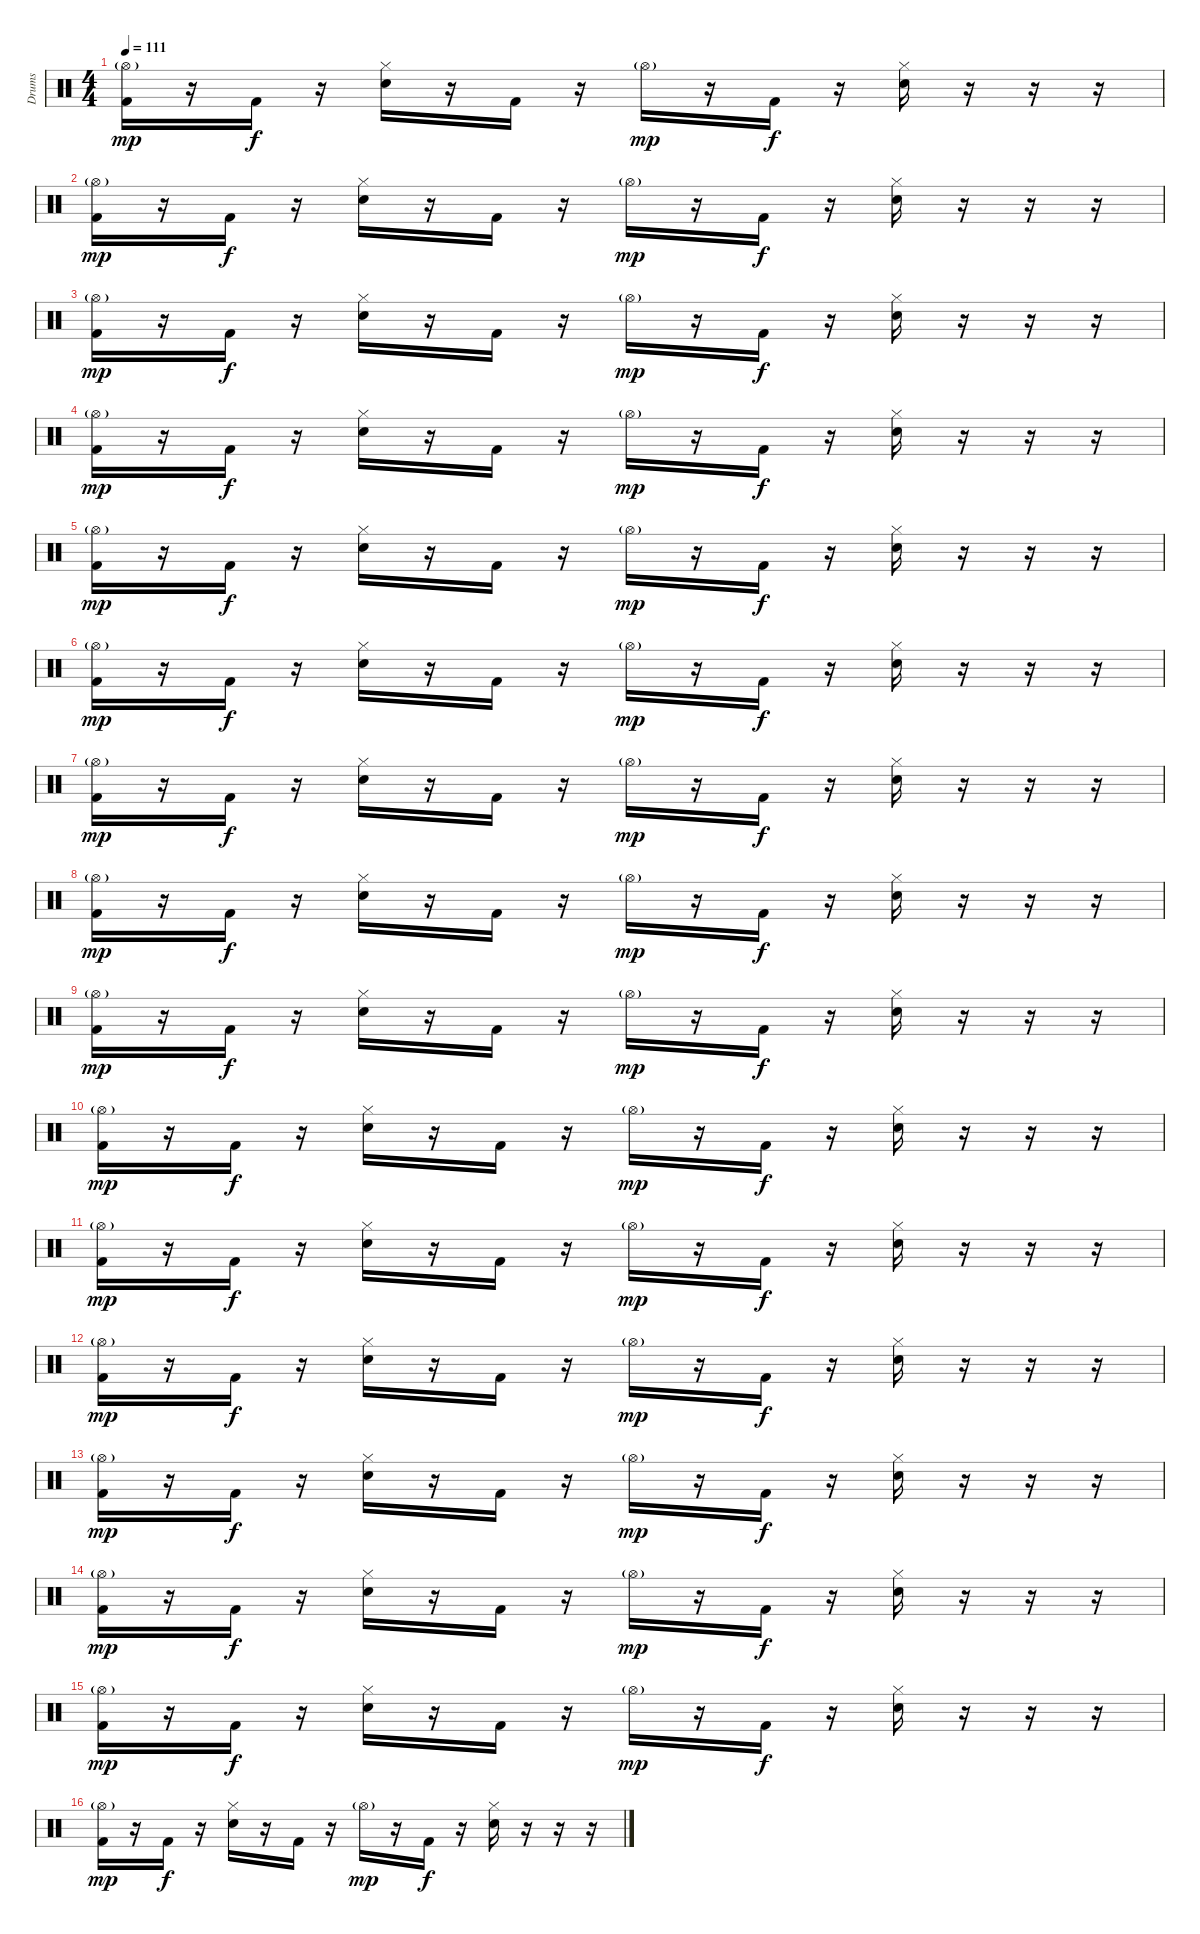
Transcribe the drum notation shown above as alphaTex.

\track ("Drums" "Drums") {instrument percussion}
\staff {score}
\articulation defaults
\ts (4 4)
\tempo 111
\clef neutral
\ks c
("Hi-Hat (open)"{g} "Kick (hit) 2").16{dy mp} r.16 "Kick (hit) 2".16{dy f} r.16 ("Hi-Hat (closed)" "Snare (hit) 2").16 r.16 "Kick (hit) 2".16 r.16 "Hi-Hat (open)"{g}.16{dy mp} r.16 "Kick (hit) 2".16{dy f} r.16 ("Hi-Hat (closed)" "Snare (hit) 2").16 r.16 r.16 r.16 |
("Hi-Hat (open)"{g} "Kick (hit) 2").16{dy mp} r.16 "Kick (hit) 2".16{dy f} r.16 ("Hi-Hat (closed)" "Snare (hit) 2").16 r.16 "Kick (hit) 2".16 r.16 "Hi-Hat (open)"{g}.16{dy mp} r.16 "Kick (hit) 2".16{dy f} r.16 ("Hi-Hat (closed)" "Snare (hit) 2").16 r.16 r.16 r.16 |
("Hi-Hat (open)"{g} "Kick (hit) 2").16{dy mp} r.16 "Kick (hit) 2".16{dy f} r.16 ("Hi-Hat (closed)" "Snare (hit) 2").16 r.16 "Kick (hit) 2".16 r.16 "Hi-Hat (open)"{g}.16{dy mp} r.16 "Kick (hit) 2".16{dy f} r.16 ("Hi-Hat (closed)" "Snare (hit) 2").16 r.16 r.16 r.16 |
("Hi-Hat (open)"{g} "Kick (hit) 2").16{dy mp} r.16 "Kick (hit) 2".16{dy f} r.16 ("Hi-Hat (closed)" "Snare (hit) 2").16 r.16 "Kick (hit) 2".16 r.16 "Hi-Hat (open)"{g}.16{dy mp} r.16 "Kick (hit) 2".16{dy f} r.16 ("Hi-Hat (closed)" "Snare (hit) 2").16 r.16 r.16 r.16 |
("Hi-Hat (open)"{g} "Kick (hit) 2").16{dy mp} r.16 "Kick (hit) 2".16{dy f} r.16 ("Hi-Hat (closed)" "Snare (hit) 2").16 r.16 "Kick (hit) 2".16 r.16 "Hi-Hat (open)"{g}.16{dy mp} r.16 "Kick (hit) 2".16{dy f} r.16 ("Hi-Hat (closed)" "Snare (hit) 2").16 r.16 r.16 r.16 |
("Hi-Hat (open)"{g} "Kick (hit) 2").16{dy mp} r.16 "Kick (hit) 2".16{dy f} r.16 ("Hi-Hat (closed)" "Snare (hit) 2").16 r.16 "Kick (hit) 2".16 r.16 "Hi-Hat (open)"{g}.16{dy mp} r.16 "Kick (hit) 2".16{dy f} r.16 ("Hi-Hat (closed)" "Snare (hit) 2").16 r.16 r.16 r.16 |
("Hi-Hat (open)"{g} "Kick (hit) 2").16{dy mp} r.16 "Kick (hit) 2".16{dy f} r.16 ("Hi-Hat (closed)" "Snare (hit) 2").16 r.16 "Kick (hit) 2".16 r.16 "Hi-Hat (open)"{g}.16{dy mp} r.16 "Kick (hit) 2".16{dy f} r.16 ("Hi-Hat (closed)" "Snare (hit) 2").16 r.16 r.16 r.16 |
("Hi-Hat (open)"{g} "Kick (hit) 2").16{dy mp} r.16 "Kick (hit) 2".16{dy f} r.16 ("Hi-Hat (closed)" "Snare (hit) 2").16 r.16 "Kick (hit) 2".16 r.16 "Hi-Hat (open)"{g}.16{dy mp} r.16 "Kick (hit) 2".16{dy f} r.16 ("Hi-Hat (closed)" "Snare (hit) 2").16 r.16 r.16 r.16 |
("Hi-Hat (open)"{g} "Kick (hit) 2").16{dy mp} r.16 "Kick (hit) 2".16{dy f} r.16 ("Hi-Hat (closed)" "Snare (hit) 2").16 r.16 "Kick (hit) 2".16 r.16 "Hi-Hat (open)"{g}.16{dy mp} r.16 "Kick (hit) 2".16{dy f} r.16 ("Hi-Hat (closed)" "Snare (hit) 2").16 r.16 r.16 r.16 |
("Hi-Hat (open)"{g} "Kick (hit) 2").16{dy mp} r.16 "Kick (hit) 2".16{dy f} r.16 ("Hi-Hat (closed)" "Snare (hit) 2").16 r.16 "Kick (hit) 2".16 r.16 "Hi-Hat (open)"{g}.16{dy mp} r.16 "Kick (hit) 2".16{dy f} r.16 ("Hi-Hat (closed)" "Snare (hit) 2").16 r.16 r.16 r.16 |
("Hi-Hat (open)"{g} "Kick (hit) 2").16{dy mp} r.16 "Kick (hit) 2".16{dy f} r.16 ("Hi-Hat (closed)" "Snare (hit) 2").16 r.16 "Kick (hit) 2".16 r.16 "Hi-Hat (open)"{g}.16{dy mp} r.16 "Kick (hit) 2".16{dy f} r.16 ("Hi-Hat (closed)" "Snare (hit) 2").16 r.16 r.16 r.16 |
("Hi-Hat (open)"{g} "Kick (hit) 2").16{dy mp} r.16 "Kick (hit) 2".16{dy f} r.16 ("Hi-Hat (closed)" "Snare (hit) 2").16 r.16 "Kick (hit) 2".16 r.16 "Hi-Hat (open)"{g}.16{dy mp} r.16 "Kick (hit) 2".16{dy f} r.16 ("Hi-Hat (closed)" "Snare (hit) 2").16 r.16 r.16 r.16 |
("Hi-Hat (open)"{g} "Kick (hit) 2").16{dy mp} r.16 "Kick (hit) 2".16{dy f} r.16 ("Hi-Hat (closed)" "Snare (hit) 2").16 r.16 "Kick (hit) 2".16 r.16 "Hi-Hat (open)"{g}.16{dy mp} r.16 "Kick (hit) 2".16{dy f} r.16 ("Hi-Hat (closed)" "Snare (hit) 2").16 r.16 r.16 r.16 |
("Hi-Hat (open)"{g} "Kick (hit) 2").16{dy mp} r.16 "Kick (hit) 2".16{dy f} r.16 ("Hi-Hat (closed)" "Snare (hit) 2").16 r.16 "Kick (hit) 2".16 r.16 "Hi-Hat (open)"{g}.16{dy mp} r.16 "Kick (hit) 2".16{dy f} r.16 ("Hi-Hat (closed)" "Snare (hit) 2").16 r.16 r.16 r.16 |
("Hi-Hat (open)"{g} "Kick (hit) 2").16{dy mp} r.16 "Kick (hit) 2".16{dy f} r.16 ("Hi-Hat (closed)" "Snare (hit) 2").16 r.16 "Kick (hit) 2".16 r.16 "Hi-Hat (open)"{g}.16{dy mp} r.16 "Kick (hit) 2".16{dy f} r.16 ("Hi-Hat (closed)" "Snare (hit) 2").16 r.16 r.16 r.16 |
("Hi-Hat (open)"{g} "Kick (hit) 2").16{dy mp} r.16 "Kick (hit) 2".16{dy f} r.16 ("Hi-Hat (closed)" "Snare (hit) 2").16 r.16 "Kick (hit) 2".16 r.16 "Hi-Hat (open)"{g}.16{dy mp} r.16 "Kick (hit) 2".16{dy f} r.16 ("Hi-Hat (closed)" "Snare (hit) 2").16 r.16 r.16 r.16
